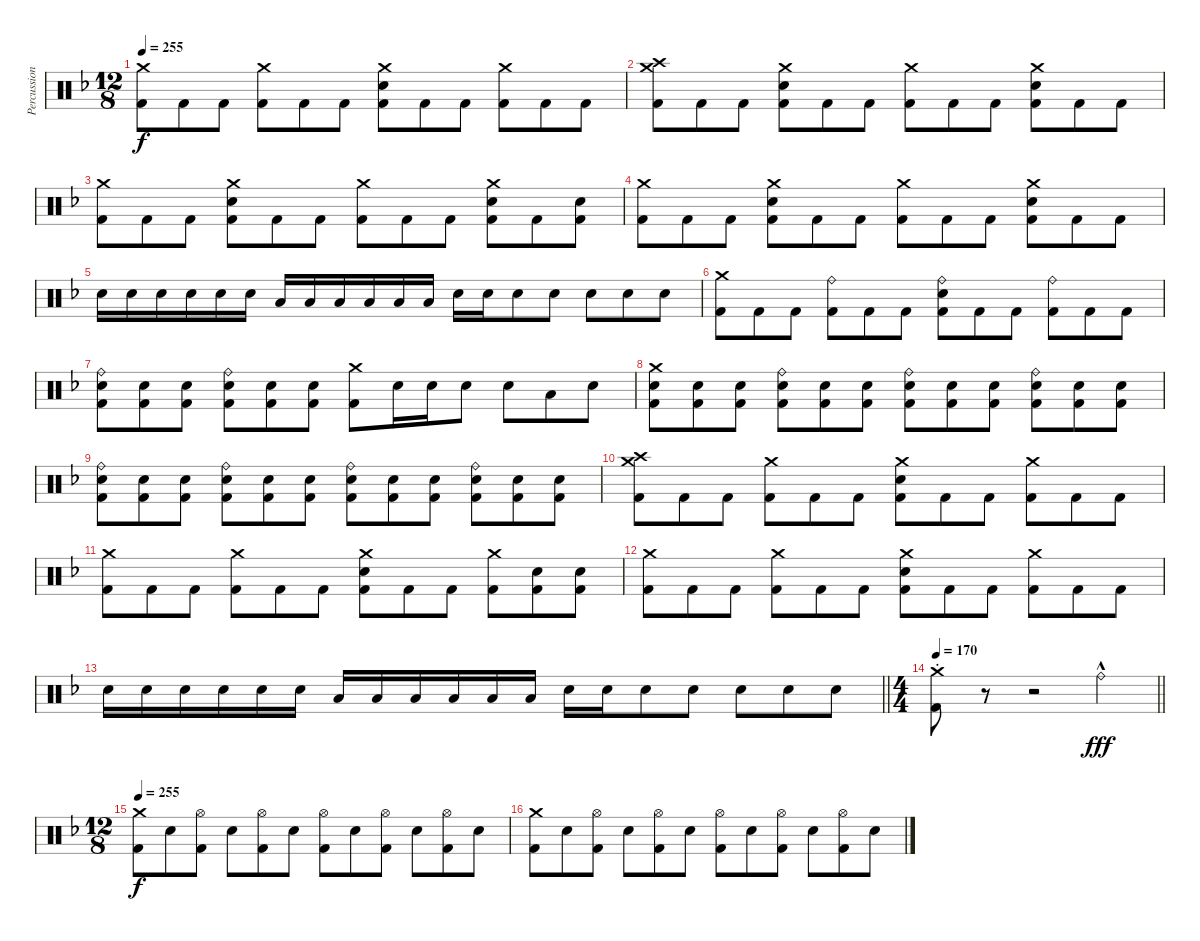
\track ("Percussion" "Percussion") {instrument percussion}
\staff {score}
\articulation defaults
\ts (12 8)
\tempo 255
\clef neutral
\ks dminor
("Crash medium (hit)" "Kick (hit) 2").8{dy f} "Kick (hit) 2".8 "Kick (hit) 2".8 ("Crash medium (hit)" "Kick (hit) 2").8 "Kick (hit) 2".8 "Kick (hit) 2".8 ("Crash medium (hit)" "Electric Snare (hit)" "Kick (hit) 2").8 "Kick (hit) 2".8 "Kick (hit) 2".8 ("Crash medium (hit)" "Kick (hit) 2").8 "Kick (hit) 2".8 "Kick (hit) 2".8 |
("Crash medium (hit)" "Crash high (hit)" "Kick (hit) 2").8 "Kick (hit) 2".8 "Kick (hit) 2".8 ("Crash medium (hit)" "Electric Snare (hit)" "Kick (hit) 2").8 "Kick (hit) 2".8 "Kick (hit) 2".8 ("Crash medium (hit)" "Kick (hit) 2").8 "Kick (hit) 2".8 "Kick (hit) 2".8 ("Crash medium (hit)" "Electric Snare (hit)" "Kick (hit) 2").8 "Kick (hit) 2".8 "Kick (hit) 2".8 |
("Crash medium (hit)" "Kick (hit) 2").8 "Kick (hit) 2".8 "Kick (hit) 2".8 ("Crash medium (hit)" "Electric Snare (hit)" "Kick (hit) 2").8 "Kick (hit) 2".8 "Kick (hit) 2".8 ("Crash medium (hit)" "Kick (hit) 2").8 "Kick (hit) 2".8 "Kick (hit) 2".8 ("Crash medium (hit)" "Electric Snare (hit)" "Kick (hit) 2").8 "Kick (hit) 2".8 ("Electric Snare (hit)" "Kick (hit) 2").8 |
("Crash medium (hit)" "Kick (hit) 2").8 "Kick (hit) 2".8 "Kick (hit) 2".8 ("Crash medium (hit)" "Electric Snare (hit)" "Kick (hit) 2").8 "Kick (hit) 2".8 "Kick (hit) 2".8 ("Crash medium (hit)" "Kick (hit) 2").8 "Kick (hit) 2".8 "Kick (hit) 2".8 ("Crash medium (hit)" "Electric Snare (hit)" "Kick (hit) 2").8 "Kick (hit) 2".8 "Kick (hit) 2".8 |
"Electric Snare (hit)".16 "Electric Snare (hit)".16 "Electric Snare (hit)".16 "Electric Snare (hit)".16 "Electric Snare (hit)".16 "Electric Snare (hit)".16 "Low Tom (hit)".16 "Low Tom (hit)".16 "Low Tom (hit)".16 "Low Tom (hit)".16 "Low Tom (hit)".16 "Low Tom (hit)".16 "Electric Snare (hit)".16 "Electric Snare (hit)".16 "Electric Snare (hit)".8 "Electric Snare (hit)".8 "Electric Snare (hit)".8 "Electric Snare (hit)".8 "Electric Snare (hit)".8 |
("Crash medium (hit)" "Kick (hit) 2").8 "Kick (hit) 2".8 "Kick (hit) 2".8 ("Ride (bell)" "Kick (hit) 2").8 "Kick (hit) 2".8 "Kick (hit) 2".8 ("Ride (bell)" "Electric Snare (hit)" "Kick (hit) 2").8 "Kick (hit) 2".8 "Kick (hit) 2".8 ("Ride (bell)" "Kick (hit) 2").8 "Kick (hit) 2".8 "Kick (hit) 2".8 |
("Ride (bell)" "Electric Snare (hit)" "Kick (hit) 2").8 ("Electric Snare (hit)" "Kick (hit) 2").8 ("Electric Snare (hit)" "Kick (hit) 2").8 ("Ride (bell)" "Electric Snare (hit)" "Kick (hit) 2").8 ("Electric Snare (hit)" "Kick (hit) 2").8 ("Electric Snare (hit)" "Kick (hit) 2").8 ("Crash medium (hit)" "Kick (hit) 2").8 "Electric Snare (hit)".16 "Electric Snare (hit)".16 "Electric Snare (hit)".8 "Electric Snare (hit)".8 "Low Floor Tom (hit)".8 "Electric Snare (hit)".8 |
("Crash medium (hit)" "Electric Snare (hit)" "Kick (hit) 2").8 ("Electric Snare (hit)" "Kick (hit) 2").8 ("Electric Snare (hit)" "Kick (hit) 2").8 ("Ride (bell)" "Electric Snare (hit)" "Kick (hit) 2").8 ("Electric Snare (hit)" "Kick (hit) 2").8 ("Electric Snare (hit)" "Kick (hit) 2").8 ("Ride (bell)" "Electric Snare (hit)" "Kick (hit) 2").8 ("Electric Snare (hit)" "Kick (hit) 2").8 ("Electric Snare (hit)" "Kick (hit) 2").8 ("Ride (bell)" "Electric Snare (hit)" "Kick (hit) 2").8 ("Electric Snare (hit)" "Kick (hit) 2").8 ("Electric Snare (hit)" "Kick (hit) 2").8 |
("Ride (bell)" "Electric Snare (hit)" "Kick (hit) 2").8 ("Electric Snare (hit)" "Kick (hit) 2").8 ("Electric Snare (hit)" "Kick (hit) 2").8 ("Ride (bell)" "Electric Snare (hit)" "Kick (hit) 2").8 ("Electric Snare (hit)" "Kick (hit) 2").8 ("Electric Snare (hit)" "Kick (hit) 2").8 ("Ride (bell)" "Electric Snare (hit)" "Kick (hit) 2").8 ("Electric Snare (hit)" "Kick (hit) 2").8 ("Electric Snare (hit)" "Kick (hit) 2").8 ("Ride (bell)" "Electric Snare (hit)" "Kick (hit) 2").8 ("Electric Snare (hit)" "Kick (hit) 2").8 ("Electric Snare (hit)" "Kick (hit) 2").8 |
("Crash medium (hit)" "Crash high (hit)" "Kick (hit) 2").8 "Kick (hit) 2".8 "Kick (hit) 2".8 ("Crash medium (hit)" "Kick (hit) 2").8 "Kick (hit) 2".8 "Kick (hit) 2".8 ("Crash medium (hit)" "Electric Snare (hit)" "Kick (hit) 2").8 "Kick (hit) 2".8 "Kick (hit) 2".8 ("Crash medium (hit)" "Kick (hit) 2").8 "Kick (hit) 2".8 "Kick (hit) 2".8 |
("Crash medium (hit)" "Kick (hit) 2").8 "Kick (hit) 2".8 "Kick (hit) 2".8 ("Crash medium (hit)" "Kick (hit) 2").8 "Kick (hit) 2".8 "Kick (hit) 2".8 ("Crash medium (hit)" "Electric Snare (hit)" "Kick (hit) 2").8 "Kick (hit) 2".8 "Kick (hit) 2".8 ("Crash medium (hit)" "Kick (hit) 2").8 ("Electric Snare (hit)" "Kick (hit) 2").8 ("Electric Snare (hit)" "Kick (hit) 2").8 |
("Crash medium (hit)" "Kick (hit) 2").8 "Kick (hit) 2".8 "Kick (hit) 2".8 ("Crash medium (hit)" "Kick (hit) 2").8 "Kick (hit) 2".8 "Kick (hit) 2".8 ("Crash medium (hit)" "Electric Snare (hit)" "Kick (hit) 2").8 "Kick (hit) 2".8 "Kick (hit) 2".8 ("Crash medium (hit)" "Kick (hit) 2").8 "Kick (hit) 2".8 "Kick (hit) 2".8 |
\barLineRight lightlight "Electric Snare (hit)".16 "Electric Snare (hit)".16 "Electric Snare (hit)".16 "Electric Snare (hit)".16 "Electric Snare (hit)".16 "Electric Snare (hit)".16 "Low Tom (hit)".16 "Low Tom (hit)".16 "Low Tom (hit)".16 "Low Tom (hit)".16 "Low Tom (hit)".16 "Low Tom (hit)".16 "Electric Snare (hit)".16 "Electric Snare (hit)".16 "Electric Snare (hit)".8 "Electric Snare (hit)".8 "Electric Snare (hit)".8 "Electric Snare (hit)".8 "Electric Snare (hit)".8
|
\ts (4 4)
\tempo 170
\barLineRight lightlight
("Crash medium (hit)"{st} "Kick (hit) 2").8 r.8{volume 0} r.2 "Ride (bell)"{hac}.4{dy fff volume 14} |
\ts (12 8)
\section ("" "")
\tempo 255
("Crash medium (hit)" "Kick (hit) 2").8{dy f} "Electric Snare (hit)".8 ("Hi-Hat (open)" "Kick (hit) 2").8 "Electric Snare (hit)".8 ("Hi-Hat (open)" "Kick (hit) 2").8 "Electric Snare (hit)".8 ("Hi-Hat (open)" "Kick (hit) 2").8 "Electric Snare (hit)".8 ("Hi-Hat (open)" "Kick (hit) 2").8 "Electric Snare (hit)".8 ("Hi-Hat (open)" "Kick (hit) 2").8 "Electric Snare (hit)".8 |
("Crash medium (hit)" "Kick (hit) 2").8 "Electric Snare (hit)".8 ("Hi-Hat (open)" "Kick (hit) 2").8 "Electric Snare (hit)".8 ("Hi-Hat (open)" "Kick (hit) 2").8 "Electric Snare (hit)".8 ("Hi-Hat (open)" "Kick (hit) 2").8 "Electric Snare (hit)".8 ("Hi-Hat (open)" "Kick (hit) 2").8 "Electric Snare (hit)".8 ("Hi-Hat (open)" "Kick (hit) 2").8 "Electric Snare (hit)".8
